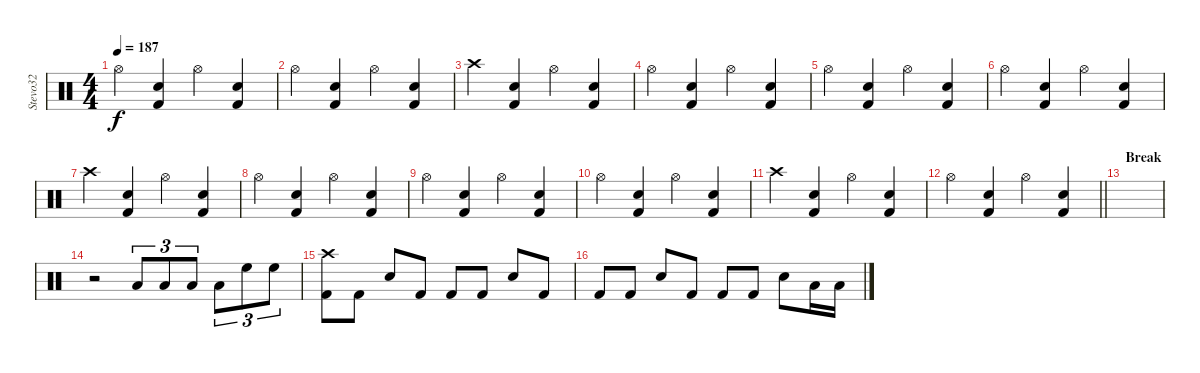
\track ("Stevo32" "Stevo32") {instrument percussion}
\staff {score}
\articulation defaults
\ts (4 4)
\tempo 187
\clef neutral
\ks c "Hi-Hat (open)".4{dy f}
("Kick (hit) 2" "Snare (hit) 2").4 "Hi-Hat (open)".4 ("Kick (hit) 2" "Snare (hit) 2").4 |
"Hi-Hat (open)".4 ("Kick (hit) 2" "Snare (hit) 2").4 "Hi-Hat (open)".4 ("Kick (hit) 2" "Snare (hit) 2").4 |
"Crash high (hit)".4 ("Kick (hit) 2" "Snare (hit) 2").4 "Hi-Hat (open)".4 ("Kick (hit) 2" "Snare (hit) 2").4 |
"Hi-Hat (open)".4 ("Kick (hit) 2" "Snare (hit) 2").4 "Hi-Hat (open)".4 ("Kick (hit) 2" "Snare (hit) 2").4 |
"Hi-Hat (open)".4 ("Kick (hit) 2" "Snare (hit) 2").4 "Hi-Hat (open)".4 ("Kick (hit) 2" "Snare (hit) 2").4 |
"Hi-Hat (open)".4 ("Kick (hit) 2" "Snare (hit) 2").4 "Hi-Hat (open)".4 ("Kick (hit) 2" "Snare (hit) 2").4 |
"Crash high (hit)".4 ("Kick (hit) 2" "Snare (hit) 2").4 "Hi-Hat (open)".4 ("Kick (hit) 2" "Snare (hit) 2").4 |
"Hi-Hat (open)".4 ("Kick (hit) 2" "Snare (hit) 2").4 "Hi-Hat (open)".4 ("Kick (hit) 2" "Snare (hit) 2").4 |
"Hi-Hat (open)".4 ("Kick (hit) 2" "Snare (hit) 2").4 "Hi-Hat (open)".4 ("Kick (hit) 2" "Snare (hit) 2").4 |
"Hi-Hat (open)".4 ("Kick (hit) 2" "Snare (hit) 2").4 "Hi-Hat (open)".4 ("Kick (hit) 2" "Snare (hit) 2").4 |
"Crash high (hit)".4 ("Kick (hit) 2" "Snare (hit) 2").4 "Hi-Hat (open)".4 ("Kick (hit) 2" "Snare (hit) 2").4 |
\barLineRight lightlight "Hi-Hat (open)".4
("Kick (hit) 2" "Snare (hit) 2").4 "Hi-Hat (open)".4 ("Kick (hit) 2" "Snare (hit) 2").4 |
\section ("" "Break")
|
r.2 "Low Floor Tom (hit)".8{tu (3 2)} "Low Floor Tom (hit)".8{tu (3 2)} "Low Tom (hit)".8{tu (3 2)} "Low Tom (hit)".8{tu (3 2)} "High Floor Tom (hit)".8{tu (3 2)} "High Floor Tom (hit)".8{tu (3 2)} |
("Kick (hit) 2" "Crash high (hit)").8 "Kick (hit) 2".8 "Snare (hit) 2".8 "Kick (hit) 2".8 "Kick (hit) 2".8 "Kick (hit) 2".8 "Snare (hit) 2".8 "Kick (hit) 2".8 |
"Kick (hit) 2".8 "Kick (hit) 2".8 "Snare (hit) 2".8 "Kick (hit) 2".8 "Kick (hit) 2".8 "Kick (hit) 2".8 "Snare (hit) 2".8 "Low Floor Tom (hit)".16 "Low Floor Tom (hit)".16
